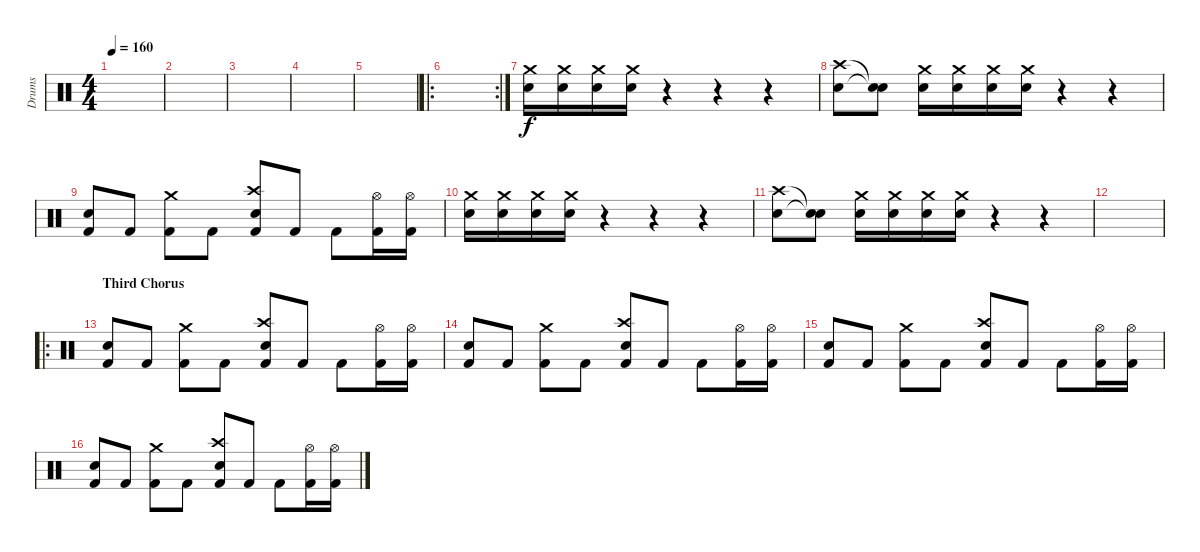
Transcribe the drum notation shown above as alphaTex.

\track ("Drums" "Drums") {instrument percussion}
\staff {score}
\articulation defaults
\ts (4 4)
\tempo 160
\clef neutral
\ks c
|
|
|
|
|
\ro
\rc 2
|
("Crash medium (hit)" "Electric Snare (hit)").16 ("Crash medium (hit)" "Electric Snare (hit)").16 ("Crash medium (hit)" "Electric Snare (hit)").16 ("Crash medium (hit)" "Electric Snare (hit)").16 r.4 r.4 r.4 |
("Electric Snare (hit)" "Crash high (hit)").8 ("Snare (hit)"{t} "Snare (hit)"{t}).8 ("Crash medium (hit)" "Electric Snare (hit)").16 ("Crash medium (hit)" "Electric Snare (hit)").16 ("Crash medium (hit)" "Electric Snare (hit)").16 ("Crash medium (hit)" "Electric Snare (hit)").16 r.4 r.4 |
("Kick (hit) 2" "Electric Snare (hit)").8 "Kick (hit) 2".8 ("Kick (hit) 2" "Crash medium (hit)").8 "Kick (hit) 2".8 ("Kick (hit) 2" "Crash high (hit)" "Electric Snare (hit)").8 "Kick (hit) 2".8 "Kick (hit) 2".8 ("Kick (hit) 2" "Hi-Hat (open)").16 ("Kick (hit) 2" "Hi-Hat (open)").16 |
("Crash medium (hit)" "Electric Snare (hit)").16 ("Crash medium (hit)" "Electric Snare (hit)").16 ("Crash medium (hit)" "Electric Snare (hit)").16 ("Crash medium (hit)" "Electric Snare (hit)").16 r.4 r.4 r.4 |
("Electric Snare (hit)" "Crash high (hit)").8 ("Snare (hit)"{t} "Snare (hit)"{t}).8 ("Crash medium (hit)" "Electric Snare (hit)").16 ("Crash medium (hit)" "Electric Snare (hit)").16 ("Crash medium (hit)" "Electric Snare (hit)").16 ("Crash medium (hit)" "Electric Snare (hit)").16 r.4 r.4 |
|
\ro
\section ("" "Third Chorus")
("Kick (hit) 2" "Electric Snare (hit)").8 "Kick (hit) 2".8 ("Kick (hit) 2" "Crash medium (hit)").8 "Kick (hit) 2".8 ("Kick (hit) 2" "Crash high (hit)" "Electric Snare (hit)").8 "Kick (hit) 2".8 "Kick (hit) 2".8 ("Kick (hit) 2" "Hi-Hat (open)").16 ("Kick (hit) 2" "Hi-Hat (open)").16 |
("Kick (hit) 2" "Electric Snare (hit)").8 "Kick (hit) 2".8 ("Kick (hit) 2" "Crash medium (hit)").8 "Kick (hit) 2".8 ("Kick (hit) 2" "Crash high (hit)" "Electric Snare (hit)").8 "Kick (hit) 2".8 "Kick (hit) 2".8 ("Kick (hit) 2" "Hi-Hat (open)").16 ("Kick (hit) 2" "Hi-Hat (open)").16 |
("Kick (hit) 2" "Electric Snare (hit)").8 "Kick (hit) 2".8 ("Kick (hit) 2" "Crash medium (hit)").8 "Kick (hit) 2".8 ("Kick (hit) 2" "Crash high (hit)" "Electric Snare (hit)").8 "Kick (hit) 2".8 "Kick (hit) 2".8 ("Kick (hit) 2" "Hi-Hat (open)").16 ("Kick (hit) 2" "Hi-Hat (open)").16 |
("Kick (hit) 2" "Electric Snare (hit)").8 "Kick (hit) 2".8 ("Kick (hit) 2" "Crash medium (hit)").8 "Kick (hit) 2".8 ("Kick (hit) 2" "Crash high (hit)" "Electric Snare (hit)").8 "Kick (hit) 2".8 "Kick (hit) 2".8 ("Kick (hit) 2" "Hi-Hat (open)").16 ("Kick (hit) 2" "Hi-Hat (open)").16
